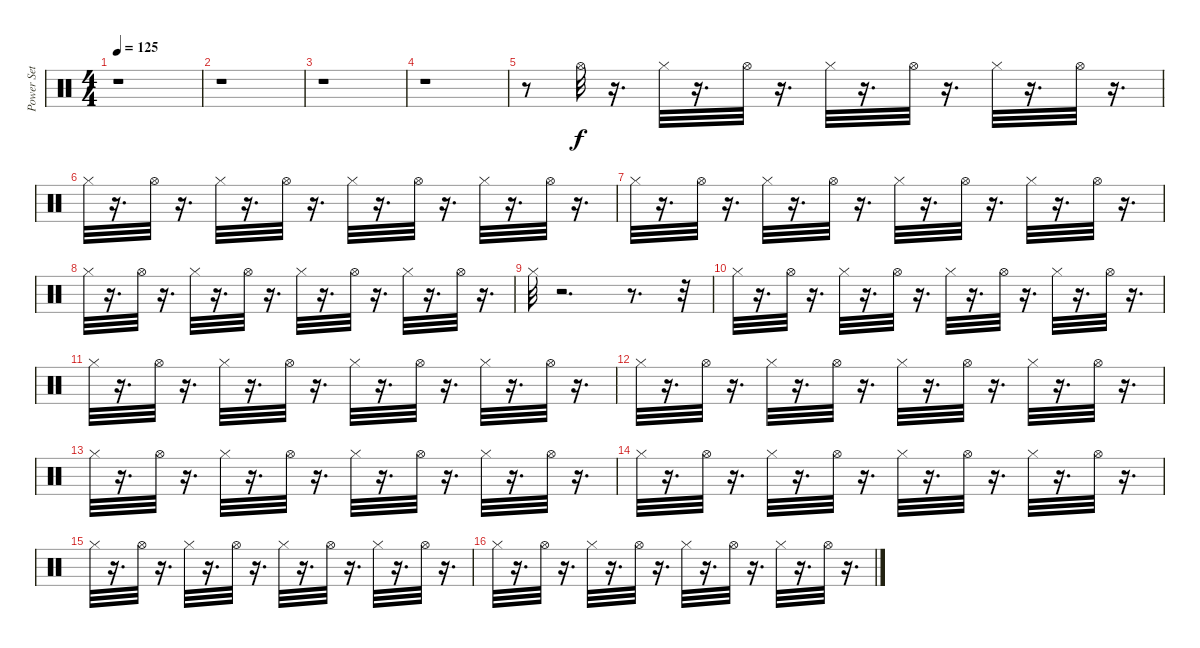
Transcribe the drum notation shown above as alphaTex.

\track ("Power Set" "Power Set") {instrument percussion}
\staff {score}
\articulation defaults
\ts (4 4)
\tempo 125
\clef neutral
\ks c
r.1{dy f} |
r.1 |
r.1 |
r.1 |
r.8 "Hi-Hat (open)".32 r.16{d} "Hi-Hat (closed)".32 r.16{d} "Hi-Hat (open)".32 r.16{d} "Hi-Hat (closed)".32 r.16{d} "Hi-Hat (open)".32 r.16{d} "Hi-Hat (closed)".32 r.16{d} "Hi-Hat (open)".32 r.16{d} |
"Hi-Hat (closed)".32 r.16{d} "Hi-Hat (open)".32 r.16{d} "Hi-Hat (closed)".32 r.16{d} "Hi-Hat (open)".32 r.16{d} "Hi-Hat (closed)".32 r.16{d} "Hi-Hat (open)".32 r.16{d} "Hi-Hat (closed)".32 r.16{d} "Hi-Hat (open)".32 r.16{d} |
"Hi-Hat (closed)".32 r.16{d} "Hi-Hat (open)".32 r.16{d} "Hi-Hat (closed)".32 r.16{d} "Hi-Hat (open)".32 r.16{d} "Hi-Hat (closed)".32 r.16{d} "Hi-Hat (open)".32 r.16{d} "Hi-Hat (closed)".32 r.16{d} "Hi-Hat (open)".32 r.16{d} |
"Hi-Hat (closed)".32 r.16{d} "Hi-Hat (open)".32 r.16{d} "Hi-Hat (closed)".32 r.16{d} "Hi-Hat (open)".32 r.16{d} "Hi-Hat (closed)".32 r.16{d} "Hi-Hat (open)".32 r.16{d} "Hi-Hat (closed)".32 r.16{d} "Hi-Hat (open)".32 r.16{d} |
"Hi-Hat (closed)".32 r.2{d} r.8{d} r.32 |
"Hi-Hat (closed)".32 r.16{d} "Hi-Hat (open)".32 r.16{d} "Hi-Hat (closed)".32 r.16{d} "Hi-Hat (open)".32 r.16{d} "Hi-Hat (closed)".32 r.16{d} "Hi-Hat (open)".32 r.16{d} "Hi-Hat (closed)".32 r.16{d} "Hi-Hat (open)".32 r.16{d} |
"Hi-Hat (closed)".32 r.16{d} "Hi-Hat (open)".32 r.16{d} "Hi-Hat (closed)".32 r.16{d} "Hi-Hat (open)".32 r.16{d} "Hi-Hat (closed)".32 r.16{d} "Hi-Hat (open)".32 r.16{d} "Hi-Hat (closed)".32 r.16{d} "Hi-Hat (open)".32 r.16{d} |
"Hi-Hat (closed)".32 r.16{d} "Hi-Hat (open)".32 r.16{d} "Hi-Hat (closed)".32 r.16{d} "Hi-Hat (open)".32 r.16{d} "Hi-Hat (closed)".32 r.16{d} "Hi-Hat (open)".32 r.16{d} "Hi-Hat (closed)".32 r.16{d} "Hi-Hat (open)".32 r.16{d} |
"Hi-Hat (closed)".32 r.16{d} "Hi-Hat (open)".32 r.16{d} "Hi-Hat (closed)".32 r.16{d} "Hi-Hat (open)".32 r.16{d} "Hi-Hat (closed)".32 r.16{d} "Hi-Hat (open)".32 r.16{d} "Hi-Hat (closed)".32 r.16{d} "Hi-Hat (open)".32 r.16{d} |
"Hi-Hat (closed)".32 r.16{d} "Hi-Hat (open)".32 r.16{d} "Hi-Hat (closed)".32 r.16{d} "Hi-Hat (open)".32 r.16{d} "Hi-Hat (closed)".32 r.16{d} "Hi-Hat (open)".32 r.16{d} "Hi-Hat (closed)".32 r.16{d} "Hi-Hat (open)".32 r.16{d} |
"Hi-Hat (closed)".32 r.16{d} "Hi-Hat (open)".32 r.16{d} "Hi-Hat (closed)".32 r.16{d} "Hi-Hat (open)".32 r.16{d} "Hi-Hat (closed)".32 r.16{d} "Hi-Hat (open)".32 r.16{d} "Hi-Hat (closed)".32 r.16{d} "Hi-Hat (open)".32 r.16{d} |
"Hi-Hat (closed)".32 r.16{d} "Hi-Hat (open)".32 r.16{d} "Hi-Hat (closed)".32 r.16{d} "Hi-Hat (open)".32 r.16{d} "Hi-Hat (closed)".32 r.16{d} "Hi-Hat (open)".32 r.16{d} "Hi-Hat (closed)".32 r.16{d} "Hi-Hat (open)".32 r.16{d}
